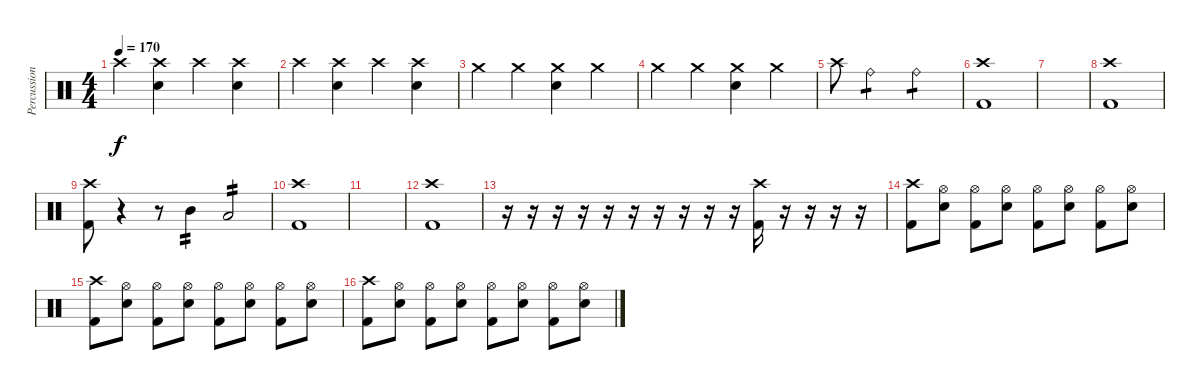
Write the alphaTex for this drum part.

\track ("Percussion" "Percussion") {solo instrument percussion}
\staff {score}
\articulation defaults
\ts (4 4)
\tempo 170
\clef neutral
\ks c "Crash high (hit)".4{dy f}
("Crash high (hit)" "Electric Snare (hit)").4 "Crash high (hit)".4 ("Crash high (hit)" "Electric Snare (hit)").4 |
"Crash high (hit)".4 ("Crash high (hit)" "Electric Snare (hit)").4 "Crash high (hit)".4 ("Crash high (hit)" "Electric Snare (hit)").4 |
"Crash medium (hit)".4 "Crash medium (hit)".4 ("Crash medium (hit)" "Electric Snare (hit)").4 "Crash medium (hit)".4 |
"Crash medium (hit)".4 "Crash medium (hit)".4 ("Crash medium (hit)" "Electric Snare (hit)").4 "Crash medium (hit)".4 |
"Crash high (hit)".8 "Ride (bell)".2{tp 1} "Ride (bell)".2{tp 1} |
("Crash high (hit)" "Kick (hit) 2").1 |
|
("Crash high (hit)" "Kick (hit) 2").1 |
("Crash high (hit)" "Kick (hit) 2").8 r.4 r.8 "Mid Tom (hit)".4{tp 2} "Low Tom (hit)".2{tp 2} |
("Crash high (hit)" "Kick (hit) 2").1 |
|
("Crash high (hit)" "Kick (hit) 2").1 |
r.16 r.16 r.16 r.16 r.16 r.16 r.16 r.16 r.16 r.16 ("Crash high (hit)" "Kick (hit) 2").16 r.16 r.16 r.16 r.16 |
("Crash high (hit)" "Kick (hit) 2").8 ("Hi-Hat (open)" "Electric Snare (hit)").8 ("Hi-Hat (open)" "Kick (hit) 2").8 ("Hi-Hat (open)" "Electric Snare (hit)").8 ("Hi-Hat (open)" "Kick (hit) 2").8 ("Hi-Hat (open)" "Electric Snare (hit)").8 ("Hi-Hat (open)" "Kick (hit) 2").8 ("Hi-Hat (open)" "Electric Snare (hit)").8 |
("Crash high (hit)" "Kick (hit) 2").8 ("Hi-Hat (open)" "Electric Snare (hit)").8 ("Hi-Hat (open)" "Kick (hit) 2").8 ("Hi-Hat (open)" "Electric Snare (hit)").8 ("Hi-Hat (open)" "Kick (hit) 2").8 ("Hi-Hat (open)" "Electric Snare (hit)").8 ("Hi-Hat (open)" "Kick (hit) 2").8 ("Hi-Hat (open)" "Electric Snare (hit)").8 |
("Crash high (hit)" "Kick (hit) 2").8 ("Hi-Hat (open)" "Electric Snare (hit)").8 ("Hi-Hat (open)" "Kick (hit) 2").8 ("Hi-Hat (open)" "Electric Snare (hit)").8 ("Hi-Hat (open)" "Kick (hit) 2").8 ("Hi-Hat (open)" "Electric Snare (hit)").8 ("Hi-Hat (open)" "Kick (hit) 2").8 ("Hi-Hat (open)" "Electric Snare (hit)").8
